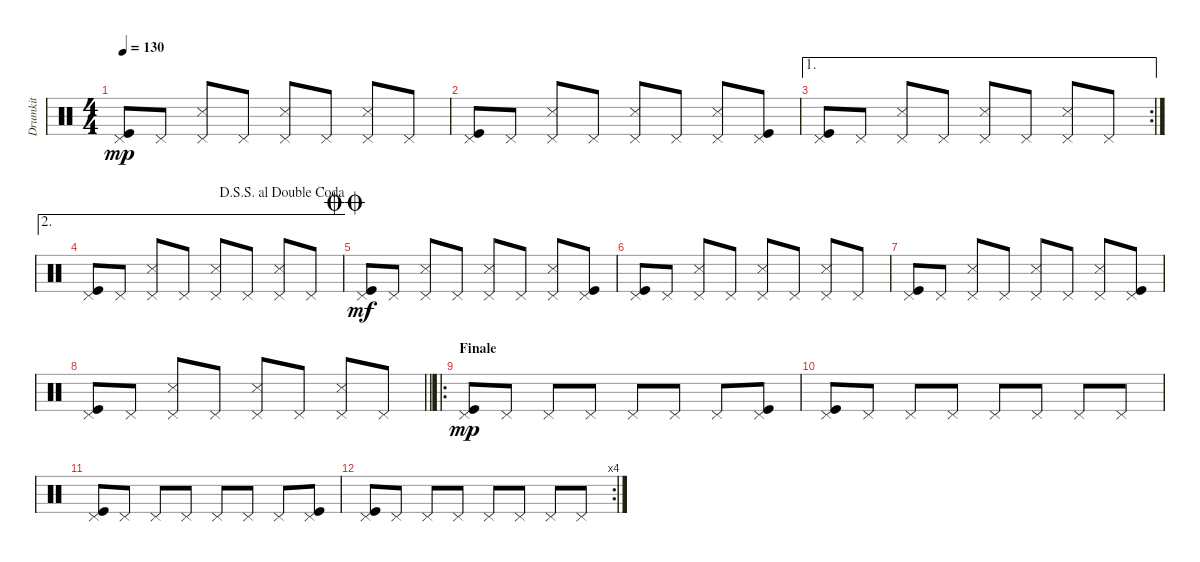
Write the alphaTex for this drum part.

\track ("Drumkit" "Drumkit") {instrument percussion}
\staff {score}
\articulation defaults
\ts (4 4)
\tempo 130
\clef neutral
\ks c
("Kick (hit)" "Pedal Hi-Hat (hit)").8{dy mp} "Pedal Hi-Hat (hit)".8 ("Pedal Hi-Hat (hit)" "Snare (side stick) 3").8 "Pedal Hi-Hat (hit)".8 ("Pedal Hi-Hat (hit)" "Snare (side stick) 3").8 "Pedal Hi-Hat (hit)".8 ("Pedal Hi-Hat (hit)" "Snare (side stick) 3").8 "Pedal Hi-Hat (hit)".8 |
("Kick (hit)" "Pedal Hi-Hat (hit)").8 "Pedal Hi-Hat (hit)".8 ("Pedal Hi-Hat (hit)" "Snare (side stick) 3").8 "Pedal Hi-Hat (hit)".8 ("Pedal Hi-Hat (hit)" "Snare (side stick) 3").8 "Pedal Hi-Hat (hit)".8 ("Pedal Hi-Hat (hit)" "Snare (side stick) 3").8 ("Kick (hit)" "Pedal Hi-Hat (hit)").8 |
\ae 1
\rc 2
("Kick (hit)" "Pedal Hi-Hat (hit)").8 "Pedal Hi-Hat (hit)".8 ("Pedal Hi-Hat (hit)" "Snare (side stick) 3").8 "Pedal Hi-Hat (hit)".8 ("Pedal Hi-Hat (hit)" "Snare (side stick) 3").8 "Pedal Hi-Hat (hit)".8 ("Pedal Hi-Hat (hit)" "Snare (side stick) 3").8 "Pedal Hi-Hat (hit)".8 |
\ae 2
\jump dalsegnosegnoaldoublecoda
("Kick (hit)" "Pedal Hi-Hat (hit)").8 "Pedal Hi-Hat (hit)".8 ("Pedal Hi-Hat (hit)" "Snare (side stick) 3").8 "Pedal Hi-Hat (hit)".8 ("Pedal Hi-Hat (hit)" "Snare (side stick) 3").8 "Pedal Hi-Hat (hit)".8 ("Pedal Hi-Hat (hit)" "Snare (side stick) 3").8 "Pedal Hi-Hat (hit)".8 |
\jump doublecoda
("Kick (hit)" "Pedal Hi-Hat (hit)").8{dy mf} "Pedal Hi-Hat (hit)".8 ("Pedal Hi-Hat (hit)" "Snare (side stick) 3").8 "Pedal Hi-Hat (hit)".8 ("Pedal Hi-Hat (hit)" "Snare (side stick) 3").8 "Pedal Hi-Hat (hit)".8 ("Pedal Hi-Hat (hit)" "Snare (side stick) 3").8 ("Kick (hit)" "Pedal Hi-Hat (hit)").8 |
("Kick (hit)" "Pedal Hi-Hat (hit)").8 "Pedal Hi-Hat (hit)".8 ("Pedal Hi-Hat (hit)" "Snare (side stick) 3").8 "Pedal Hi-Hat (hit)".8 ("Pedal Hi-Hat (hit)" "Snare (side stick) 3").8 "Pedal Hi-Hat (hit)".8 ("Pedal Hi-Hat (hit)" "Snare (side stick) 3").8 "Pedal Hi-Hat (hit)".8 |
("Kick (hit)" "Pedal Hi-Hat (hit)").8 "Pedal Hi-Hat (hit)".8 ("Pedal Hi-Hat (hit)" "Snare (side stick) 3").8 "Pedal Hi-Hat (hit)".8 ("Pedal Hi-Hat (hit)" "Snare (side stick) 3").8 "Pedal Hi-Hat (hit)".8 ("Pedal Hi-Hat (hit)" "Snare (side stick) 3").8 ("Kick (hit)" "Pedal Hi-Hat (hit)").8 |
\barLineRight lightlight
("Kick (hit)" "Pedal Hi-Hat (hit)").8 "Pedal Hi-Hat (hit)".8 ("Pedal Hi-Hat (hit)" "Snare (side stick) 3").8 "Pedal Hi-Hat (hit)".8 ("Pedal Hi-Hat (hit)" "Snare (side stick) 3").8 "Pedal Hi-Hat (hit)".8 ("Pedal Hi-Hat (hit)" "Snare (side stick) 3").8 "Pedal Hi-Hat (hit)".8 |
\ro
\section ("" "Finale")
("Kick (hit)" "Pedal Hi-Hat (hit)").8{dy mp} "Pedal Hi-Hat (hit)".8 "Pedal Hi-Hat (hit)".8 "Pedal Hi-Hat (hit)".8 "Pedal Hi-Hat (hit)".8 "Pedal Hi-Hat (hit)".8 "Pedal Hi-Hat (hit)".8 ("Kick (hit)" "Pedal Hi-Hat (hit)").8 |
("Kick (hit)" "Pedal Hi-Hat (hit)").8 "Pedal Hi-Hat (hit)".8 "Pedal Hi-Hat (hit)".8 "Pedal Hi-Hat (hit)".8 "Pedal Hi-Hat (hit)".8 "Pedal Hi-Hat (hit)".8 "Pedal Hi-Hat (hit)".8 "Pedal Hi-Hat (hit)".8 |
("Kick (hit)" "Pedal Hi-Hat (hit)").8 "Pedal Hi-Hat (hit)".8 "Pedal Hi-Hat (hit)".8 "Pedal Hi-Hat (hit)".8 "Pedal Hi-Hat (hit)".8 "Pedal Hi-Hat (hit)".8 "Pedal Hi-Hat (hit)".8 ("Kick (hit)" "Pedal Hi-Hat (hit)").8 |
\rc 4
("Kick (hit)" "Pedal Hi-Hat (hit)").8 "Pedal Hi-Hat (hit)".8 "Pedal Hi-Hat (hit)".8 "Pedal Hi-Hat (hit)".8 "Pedal Hi-Hat (hit)".8 "Pedal Hi-Hat (hit)".8 "Pedal Hi-Hat (hit)".8 "Pedal Hi-Hat (hit)".8
